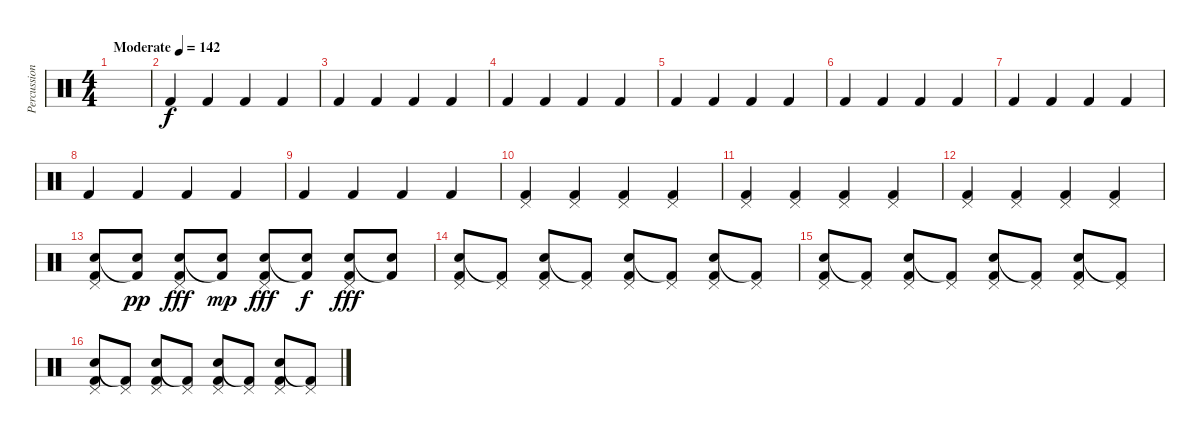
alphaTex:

\track ("Percussion" "Percussion") {instrument percussion}
\staff {score}
\articulation defaults
\ts (4 4)
\tempo (142 "Moderate")
\clef neutral
\ks c
|
"Kick (hit) 2".4 "Kick (hit) 2".4 "Kick (hit) 2".4 "Kick (hit) 2".4 |
"Kick (hit) 2".4 "Kick (hit) 2".4 "Kick (hit) 2".4 "Kick (hit) 2".4 |
"Kick (hit) 2".4 "Kick (hit) 2".4 "Kick (hit) 2".4 "Kick (hit) 2".4 |
"Kick (hit) 2".4 "Kick (hit) 2".4 "Kick (hit) 2".4 "Kick (hit) 2".4 |
"Kick (hit) 2".4 "Kick (hit) 2".4 "Kick (hit) 2".4 "Kick (hit) 2".4 |
"Kick (hit) 2".4 "Kick (hit) 2".4 "Kick (hit) 2".4 "Kick (hit) 2".4 |
"Kick (hit) 2".4 "Kick (hit) 2".4 "Kick (hit) 2".4 "Kick (hit) 2".4 |
"Kick (hit) 2".4 "Kick (hit) 2".4 "Kick (hit) 2".4 "Kick (hit) 2".4 |
("Pedal Hi-Hat (hit)" "Kick (hit) 2").4 ("Pedal Hi-Hat (hit)" "Kick (hit) 2").4 ("Pedal Hi-Hat (hit)" "Kick (hit) 2").4 ("Pedal Hi-Hat (hit)" "Kick (hit) 2").4 |
("Pedal Hi-Hat (hit)" "Kick (hit) 2").4 ("Pedal Hi-Hat (hit)" "Kick (hit) 2").4 ("Pedal Hi-Hat (hit)" "Kick (hit) 2").4 ("Pedal Hi-Hat (hit)" "Kick (hit) 2").4 |
("Pedal Hi-Hat (hit)" "Kick (hit) 2").4 ("Pedal Hi-Hat (hit)" "Kick (hit) 2").4 ("Pedal Hi-Hat (hit)" "Kick (hit) 2").4 ("Pedal Hi-Hat (hit)" "Kick (hit) 2").4 |
("Pedal Hi-Hat (hit)" "Snare (hit) 2" "Kick (hit) 2").8 ("Snare (hit) 2" "Kick (hit) 2"{t}).8{dy pp} ("Pedal Hi-Hat (hit)" "Snare (hit) 2" "Kick (hit) 2").8{dy fff} ("Snare (hit) 2" "Kick (hit) 2"{t}).8{dy mp} ("Pedal Hi-Hat (hit)" "Snare (hit) 2" "Kick (hit) 2").8{dy fff} ("Snare (hit) 2" "Kick (hit) 2"{t}).8{dy f} ("Pedal Hi-Hat (hit)" "Snare (hit) 2" "Kick (hit) 2").8{dy fff} ("Snare (hit) 2" "Kick (hit) 2"{t}).8 |
("Pedal Hi-Hat (hit)" "Snare (hit) 2" "Kick (hit) 2").8 ("Pedal Hi-Hat (hit)" "Kick (hit) 2"{t}).8 ("Pedal Hi-Hat (hit)" "Snare (hit) 2" "Kick (hit) 2").8 ("Pedal Hi-Hat (hit)" "Kick (hit) 2"{t}).8 ("Pedal Hi-Hat (hit)" "Snare (hit) 2" "Kick (hit) 2").8 ("Pedal Hi-Hat (hit)" "Kick (hit) 2"{t}).8 ("Pedal Hi-Hat (hit)" "Snare (hit) 2" "Kick (hit) 2").8 ("Pedal Hi-Hat (hit)" "Kick (hit) 2"{t}).8 |
("Pedal Hi-Hat (hit)" "Snare (hit) 2" "Kick (hit) 2").8 ("Pedal Hi-Hat (hit)" "Kick (hit) 2"{t}).8 ("Pedal Hi-Hat (hit)" "Snare (hit) 2" "Kick (hit) 2").8 ("Pedal Hi-Hat (hit)" "Kick (hit) 2"{t}).8 ("Pedal Hi-Hat (hit)" "Snare (hit) 2" "Kick (hit) 2").8 ("Pedal Hi-Hat (hit)" "Kick (hit) 2"{t}).8 ("Pedal Hi-Hat (hit)" "Snare (hit) 2" "Kick (hit) 2").8 ("Pedal Hi-Hat (hit)" "Kick (hit) 2"{t}).8 |
("Pedal Hi-Hat (hit)" "Snare (hit) 2" "Kick (hit) 2").8 ("Pedal Hi-Hat (hit)" "Kick (hit) 2"{t}).8 ("Pedal Hi-Hat (hit)" "Snare (hit) 2" "Kick (hit) 2").8 ("Pedal Hi-Hat (hit)" "Kick (hit) 2"{t}).8 ("Pedal Hi-Hat (hit)" "Snare (hit) 2" "Kick (hit) 2").8 ("Pedal Hi-Hat (hit)" "Kick (hit) 2"{t}).8 ("Pedal Hi-Hat (hit)" "Snare (hit) 2" "Kick (hit) 2").8 ("Pedal Hi-Hat (hit)" "Kick (hit) 2"{t}).8
